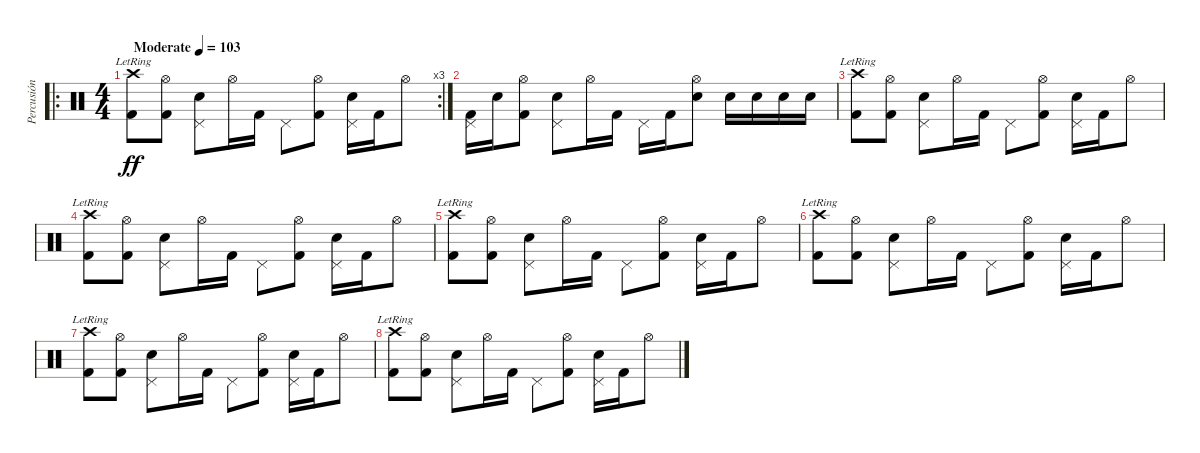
\track ("Percusión" "Percusión") {instrument percussion}
\staff {score}
\articulation defaults
\ro
\rc 3
\ts (4 4)
\tempo (103 "Moderate")
\clef neutral
\ks c
("Crash high (hit)"{lr} "Kick (hit) 2").8{dy ff} ("Hi-Hat (open)" "Kick (hit) 2").8 ("Pedal Hi-Hat (hit)" "Snare (hit) 2").8 "Hi-Hat (open)".16 "Kick (hit) 2".16 "Pedal Hi-Hat (hit)".8 ("Hi-Hat (open)" "Kick (hit) 2").8 ("Pedal Hi-Hat (hit)" "Snare (hit) 2").16 "Kick (hit) 2".16 "Hi-Hat (open)".8 |
("Pedal Hi-Hat (hit)" "Kick (hit) 2").16 "Snare (hit) 2".16 ("Hi-Hat (open)" "Kick (hit) 2").8 ("Pedal Hi-Hat (hit)" "Snare (hit) 2").8 "Hi-Hat (open)".16 "Kick (hit) 2".16 "Pedal Hi-Hat (hit)".16 "Kick (hit) 2".16 ("Hi-Hat (open)" "Snare (hit) 2").8 "Snare (hit) 2".16 "Snare (hit) 2".16 "Snare (hit) 2".16 "Snare (hit) 2".16 |
("Crash high (hit)"{lr} "Kick (hit) 2").8 ("Hi-Hat (open)" "Kick (hit) 2").8 ("Pedal Hi-Hat (hit)" "Snare (hit) 2").8 "Hi-Hat (open)".16 "Kick (hit) 2".16 "Pedal Hi-Hat (hit)".8 ("Hi-Hat (open)" "Kick (hit) 2").8 ("Pedal Hi-Hat (hit)" "Snare (hit) 2").16 "Kick (hit) 2".16 "Hi-Hat (open)".8 |
("Crash high (hit)"{lr} "Kick (hit) 2").8 ("Hi-Hat (open)" "Kick (hit) 2").8 ("Pedal Hi-Hat (hit)" "Snare (hit) 2").8 "Hi-Hat (open)".16 "Kick (hit) 2".16 "Pedal Hi-Hat (hit)".8 ("Hi-Hat (open)" "Kick (hit) 2").8 ("Pedal Hi-Hat (hit)" "Snare (hit) 2").16 "Kick (hit) 2".16 "Hi-Hat (open)".8 |
("Crash high (hit)"{lr} "Kick (hit) 2").8 ("Hi-Hat (open)" "Kick (hit) 2").8 ("Pedal Hi-Hat (hit)" "Snare (hit) 2").8 "Hi-Hat (open)".16 "Kick (hit) 2".16 "Pedal Hi-Hat (hit)".8 ("Hi-Hat (open)" "Kick (hit) 2").8 ("Pedal Hi-Hat (hit)" "Snare (hit) 2").16 "Kick (hit) 2".16 "Hi-Hat (open)".8 |
("Crash high (hit)"{lr} "Kick (hit) 2").8 ("Hi-Hat (open)" "Kick (hit) 2").8 ("Pedal Hi-Hat (hit)" "Snare (hit) 2").8 "Hi-Hat (open)".16 "Kick (hit) 2".16 "Pedal Hi-Hat (hit)".8 ("Hi-Hat (open)" "Kick (hit) 2").8 ("Pedal Hi-Hat (hit)" "Snare (hit) 2").16 "Kick (hit) 2".16 "Hi-Hat (open)".8 |
("Crash high (hit)"{lr} "Kick (hit) 2").8 ("Hi-Hat (open)" "Kick (hit) 2").8 ("Pedal Hi-Hat (hit)" "Snare (hit) 2").8 "Hi-Hat (open)".16 "Kick (hit) 2".16 "Pedal Hi-Hat (hit)".8 ("Hi-Hat (open)" "Kick (hit) 2").8 ("Pedal Hi-Hat (hit)" "Snare (hit) 2").16 "Kick (hit) 2".16 "Hi-Hat (open)".8 |
("Crash high (hit)"{lr} "Kick (hit) 2").8 ("Hi-Hat (open)" "Kick (hit) 2").8 ("Pedal Hi-Hat (hit)" "Snare (hit) 2").8 "Hi-Hat (open)".16 "Kick (hit) 2".16 "Pedal Hi-Hat (hit)".8 ("Hi-Hat (open)" "Kick (hit) 2").8 ("Pedal Hi-Hat (hit)" "Snare (hit) 2").16 "Kick (hit) 2".16 "Hi-Hat (open)".8
